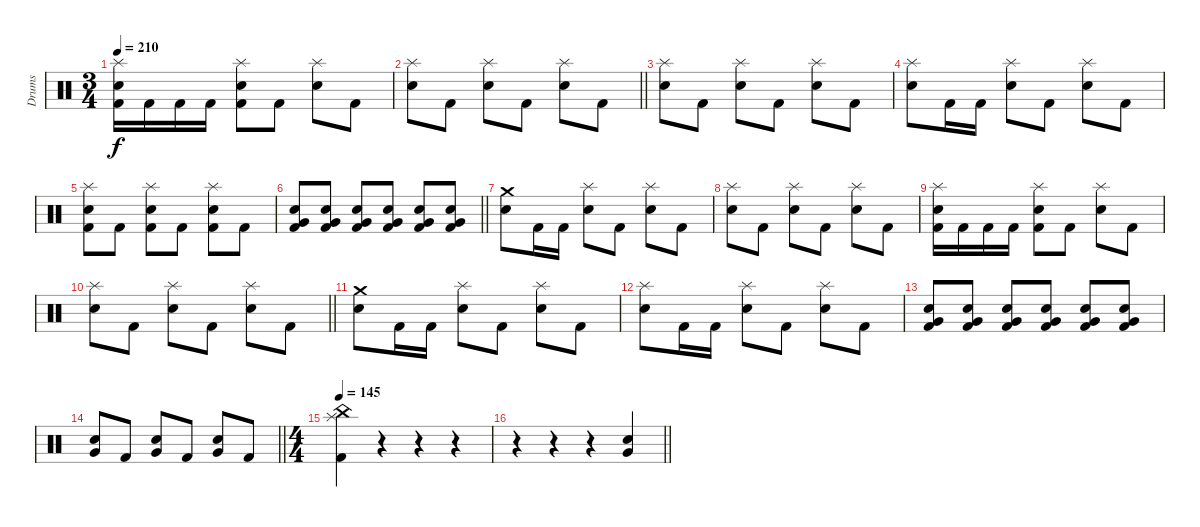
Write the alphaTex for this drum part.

\track ("Drums" "Drums") {instrument percussion}
\staff {score}
\articulation defaults
\ts (3 4)
\tempo 210
\clef neutral
\ks c
("Splash (hit)" "Electric Snare (hit)" "Kick (hit) 2").16{dy f} "Kick (hit) 2".16 "Kick (hit) 2".16 "Kick (hit) 2".16 ("Splash (hit)" "Electric Snare (hit)" "Kick (hit) 2").8 "Kick (hit) 2".8 ("Splash (hit)" "Electric Snare (hit)").8 "Kick (hit) 2".8 |
\barLineRight lightlight
("Splash (hit)" "Electric Snare (hit)").8 "Kick (hit) 2".8 ("Splash (hit)" "Electric Snare (hit)").8 "Kick (hit) 2".8 ("Splash (hit)" "Electric Snare (hit)").8 "Kick (hit) 2".8 |
("Splash (hit)" "Electric Snare (hit)").8 "Kick (hit) 2".8 ("Splash (hit)" "Electric Snare (hit)").8 "Kick (hit) 2".8 ("Splash (hit)" "Electric Snare (hit)").8 "Kick (hit) 2".8 |
("Splash (hit)" "Electric Snare (hit)").8 "Kick (hit) 2".16 "Kick (hit) 2".16 ("Splash (hit)" "Electric Snare (hit)").8 "Kick (hit) 2".8 ("Splash (hit)" "Electric Snare (hit)").8 "Kick (hit) 2".8 |
("Splash (hit)" "Electric Snare (hit)" "Kick (hit) 2").8 "Kick (hit) 2".8 ("Splash (hit)" "Electric Snare (hit)" "Kick (hit) 2").8 "Kick (hit) 2".8 ("Splash (hit)" "Electric Snare (hit)" "Kick (hit) 2").8 "Kick (hit) 2".8 |
\barLineRight lightlight
("Electric Snare (hit)" "Very Low Tom (hit)" "Kick (hit) 2").8 ("Electric Snare (hit)" "Very Low Tom (hit)" "Kick (hit) 2").8 ("Electric Snare (hit)" "Very Low Tom (hit)" "Kick (hit) 2").8 ("Electric Snare (hit)" "Very Low Tom (hit)" "Kick (hit) 2").8 ("Electric Snare (hit)" "Very Low Tom (hit)" "Kick (hit) 2").8 ("Electric Snare (hit)" "Very Low Tom (hit)" "Kick (hit) 2").8 |
("Crash medium (hit)" "Electric Snare (hit)").8 "Kick (hit) 2".16 "Kick (hit) 2".16 ("Splash (hit)" "Electric Snare (hit)").8 "Kick (hit) 2".8 ("Splash (hit)" "Electric Snare (hit)").8 "Kick (hit) 2".8 |
("Splash (hit)" "Electric Snare (hit)").8 "Kick (hit) 2".8 ("Splash (hit)" "Electric Snare (hit)").8 "Kick (hit) 2".8 ("Splash (hit)" "Electric Snare (hit)").8 "Kick (hit) 2".8 |
("Splash (hit)" "Electric Snare (hit)" "Kick (hit) 2").16 "Kick (hit) 2".16 "Kick (hit) 2".16 "Kick (hit) 2".16 ("Splash (hit)" "Electric Snare (hit)" "Kick (hit) 2").8 "Kick (hit) 2".8 ("Splash (hit)" "Electric Snare (hit)").8 "Kick (hit) 2".8 |
\barLineRight lightlight
("Splash (hit)" "Electric Snare (hit)").8 "Kick (hit) 2".8 ("Splash (hit)" "Electric Snare (hit)").8 "Kick (hit) 2".8 ("Splash (hit)" "Electric Snare (hit)").8 "Kick (hit) 2".8 |
("Crash medium (hit)" "Electric Snare (hit)").8 "Kick (hit) 2".16 "Kick (hit) 2".16 ("Splash (hit)" "Electric Snare (hit)").8 "Kick (hit) 2".8 ("Splash (hit)" "Electric Snare (hit)").8 "Kick (hit) 2".8 |
("Splash (hit)" "Electric Snare (hit)").8 "Kick (hit) 2".16 "Kick (hit) 2".16 ("Splash (hit)" "Electric Snare (hit)").8 "Kick (hit) 2".8 ("Splash (hit)" "Electric Snare (hit)").8 "Kick (hit) 2".8 |
("Electric Snare (hit)" "Very Low Tom (hit)" "Kick (hit) 2").8 ("Electric Snare (hit)" "Very Low Tom (hit)" "Kick (hit) 2").8 ("Electric Snare (hit)" "Very Low Tom (hit)" "Kick (hit) 2").8 ("Electric Snare (hit)" "Very Low Tom (hit)" "Kick (hit) 2").8 ("Electric Snare (hit)" "Very Low Tom (hit)" "Kick (hit) 2").8 ("Electric Snare (hit)" "Very Low Tom (hit)" "Kick (hit) 2").8 |
\barLineRight lightlight
("Electric Snare (hit)" "Very Low Tom (hit)").8 "Kick (hit) 2".8 ("Electric Snare (hit)" "Very Low Tom (hit)").8 "Kick (hit) 2".8 ("Electric Snare (hit)" "Very Low Tom (hit)").8 "Kick (hit) 2".8 |
\ts (4 4)
\tempo 145
("China (hit)" "Splash (hit)" "Kick (hit) 2").4 r.4 r.4 r.4 |
\barLineRight lightlight
r.4 r.4 r.4 ("Electric Snare (hit)" "Very Low Tom (hit)").4
